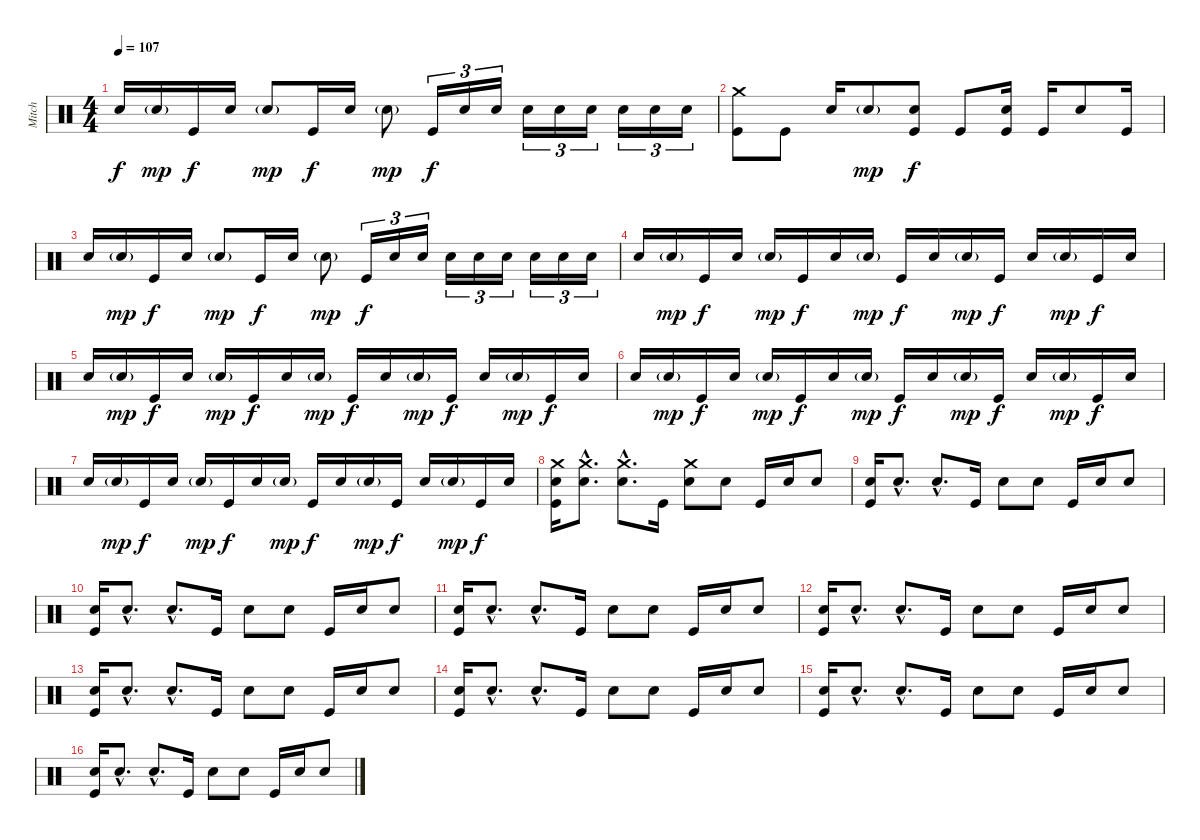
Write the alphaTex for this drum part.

\track ("Mitch" "Mitch") {instrument percussion}
\staff {score}
\articulation defaults
\ts (4 4)
\tempo 107
\clef neutral
\ks c "Electric Snare (hit)".16{dy f} "Electric Snare (hit)"{g}.16{dy mp} "Kick (hit)".16{dy f} "Electric Snare (hit)".16 "Electric Snare (hit)"{g}.8{dy mp} "Kick (hit)".16{dy f} "Electric Snare (hit)".16 "Electric Snare (hit)"{g}.8{dy mp} "Kick (hit)".16{tu (3 2) dy f} "Electric Snare (hit)".16{tu (3 2)} "Electric Snare (hit)".16{tu (3 2)} "Electric Snare (hit)".16{tu (3 2)} "Electric Snare (hit)".16{tu (3 2)} "Electric Snare (hit)".16{tu (3 2)} "Electric Snare (hit)".16{tu (3 2)} "Electric Snare (hit)".16{tu (3 2)} "Electric Snare (hit)".16{tu (3 2)}
|
("Crash medium (hit)" "Kick (hit)").8 "Kick (hit)".8 "Electric Snare (hit)".16 "Electric Snare (hit)"{g}.8{dy mp} ("Electric Snare (hit)" "Kick (hit)").8{dy f} "Kick (hit)".8 ("Electric Snare (hit)" "Kick (hit)").16 "Kick (hit)".16 "Electric Snare (hit)".8 "Kick (hit)".16 |
"Electric Snare (hit)".16 "Electric Snare (hit)"{g}.16{dy mp} "Kick (hit)".16{dy f} "Electric Snare (hit)".16 "Electric Snare (hit)"{g}.8{dy mp} "Kick (hit)".16{dy f} "Electric Snare (hit)".16 "Electric Snare (hit)"{g}.8{dy mp} "Kick (hit)".16{tu (3 2) dy f} "Electric Snare (hit)".16{tu (3 2)} "Electric Snare (hit)".16{tu (3 2)} "Electric Snare (hit)".16{tu (3 2)} "Electric Snare (hit)".16{tu (3 2)} "Electric Snare (hit)".16{tu (3 2)} "Electric Snare (hit)".16{tu (3 2)} "Electric Snare (hit)".16{tu (3 2)} "Electric Snare (hit)".16{tu (3 2)} |
"Electric Snare (hit)".16 "Electric Snare (hit)"{g}.16{dy mp} "Kick (hit)".16{dy f} "Electric Snare (hit)".16 "Electric Snare (hit)"{g}.16{dy mp} "Kick (hit)".16{dy f} "Electric Snare (hit)".16 "Electric Snare (hit)"{g}.16{dy mp} "Kick (hit)".16{dy f} "Electric Snare (hit)".16 "Electric Snare (hit)"{g}.16{dy mp} "Kick (hit)".16{dy f} "Electric Snare (hit)".16 "Electric Snare (hit)"{g}.16{dy mp} "Kick (hit)".16{dy f} "Electric Snare (hit)".16 |
"Electric Snare (hit)".16 "Electric Snare (hit)"{g}.16{dy mp} "Kick (hit)".16{dy f} "Electric Snare (hit)".16 "Electric Snare (hit)"{g}.16{dy mp} "Kick (hit)".16{dy f} "Electric Snare (hit)".16 "Electric Snare (hit)"{g}.16{dy mp} "Kick (hit)".16{dy f} "Electric Snare (hit)".16 "Electric Snare (hit)"{g}.16{dy mp} "Kick (hit)".16{dy f} "Electric Snare (hit)".16 "Electric Snare (hit)"{g}.16{dy mp} "Kick (hit)".16{dy f} "Electric Snare (hit)".16 |
"Electric Snare (hit)".16 "Electric Snare (hit)"{g}.16{dy mp} "Kick (hit)".16{dy f} "Electric Snare (hit)".16 "Electric Snare (hit)"{g}.16{dy mp} "Kick (hit)".16{dy f} "Electric Snare (hit)".16 "Electric Snare (hit)"{g}.16{dy mp} "Kick (hit)".16{dy f} "Electric Snare (hit)".16 "Electric Snare (hit)"{g}.16{dy mp} "Kick (hit)".16{dy f} "Electric Snare (hit)".16 "Electric Snare (hit)"{g}.16{dy mp} "Kick (hit)".16{dy f} "Electric Snare (hit)".16 |
"Electric Snare (hit)".16 "Electric Snare (hit)"{g}.16{dy mp} "Kick (hit)".16{dy f} "Electric Snare (hit)".16 "Electric Snare (hit)"{g}.16{dy mp} "Kick (hit)".16{dy f} "Electric Snare (hit)".16 "Electric Snare (hit)"{g}.16{dy mp} "Kick (hit)".16{dy f} "Electric Snare (hit)".16 "Electric Snare (hit)"{g}.16{dy mp} "Kick (hit)".16{dy f} "Electric Snare (hit)".16 "Electric Snare (hit)"{g}.16{dy mp} "Kick (hit)".16{dy f} "Electric Snare (hit)".16 |
("Crash medium (hit)" "Electric Snare (hit)" "Kick (hit)").16 ("Crash medium (hit)"{hac} "Electric Snare (hit)"{hac}).8{d} ("Crash medium (hit)"{hac} "Electric Snare (hit)"{hac}).8{d} "Kick (hit)".16 ("Crash medium (hit)" "Electric Snare (hit)").8 "Electric Snare (hit)".8 "Kick (hit)".16 "Electric Snare (hit)".16 "Electric Snare (hit)".8 |
("Electric Snare (hit)" "Kick (hit)").16 "Electric Snare (hit)"{hac}.8{d} "Electric Snare (hit)"{hac}.8{d} "Kick (hit)".16 "Electric Snare (hit)".8 "Electric Snare (hit)".8 "Kick (hit)".16 "Electric Snare (hit)".16 "Electric Snare (hit)".8 |
("Electric Snare (hit)" "Kick (hit)").16 "Electric Snare (hit)"{hac}.8{d} "Electric Snare (hit)"{hac}.8{d} "Kick (hit)".16 "Electric Snare (hit)".8 "Electric Snare (hit)".8 "Kick (hit)".16 "Electric Snare (hit)".16 "Electric Snare (hit)".8 |
("Electric Snare (hit)" "Kick (hit)").16 "Electric Snare (hit)"{hac}.8{d} "Electric Snare (hit)"{hac}.8{d} "Kick (hit)".16 "Electric Snare (hit)".8 "Electric Snare (hit)".8 "Kick (hit)".16 "Electric Snare (hit)".16 "Electric Snare (hit)".8 |
("Electric Snare (hit)" "Kick (hit)").16 "Electric Snare (hit)"{hac}.8{d} "Electric Snare (hit)"{hac}.8{d} "Kick (hit)".16 "Electric Snare (hit)".8 "Electric Snare (hit)".8 "Kick (hit)".16 "Electric Snare (hit)".16 "Electric Snare (hit)".8 |
("Electric Snare (hit)" "Kick (hit)").16 "Electric Snare (hit)"{hac}.8{d} "Electric Snare (hit)"{hac}.8{d} "Kick (hit)".16 "Electric Snare (hit)".8 "Electric Snare (hit)".8 "Kick (hit)".16 "Electric Snare (hit)".16 "Electric Snare (hit)".8 |
("Electric Snare (hit)" "Kick (hit)").16 "Electric Snare (hit)"{hac}.8{d} "Electric Snare (hit)"{hac}.8{d} "Kick (hit)".16 "Electric Snare (hit)".8 "Electric Snare (hit)".8 "Kick (hit)".16 "Electric Snare (hit)".16 "Electric Snare (hit)".8 |
("Electric Snare (hit)" "Kick (hit)").16 "Electric Snare (hit)"{hac}.8{d} "Electric Snare (hit)"{hac}.8{d} "Kick (hit)".16 "Electric Snare (hit)".8 "Electric Snare (hit)".8 "Kick (hit)".16 "Electric Snare (hit)".16 "Electric Snare (hit)".8 |
("Electric Snare (hit)" "Kick (hit)").16 "Electric Snare (hit)"{hac}.8{d} "Electric Snare (hit)"{hac}.8{d} "Kick (hit)".16 "Electric Snare (hit)".8 "Electric Snare (hit)".8 "Kick (hit)".16 "Electric Snare (hit)".16 "Electric Snare (hit)".8
